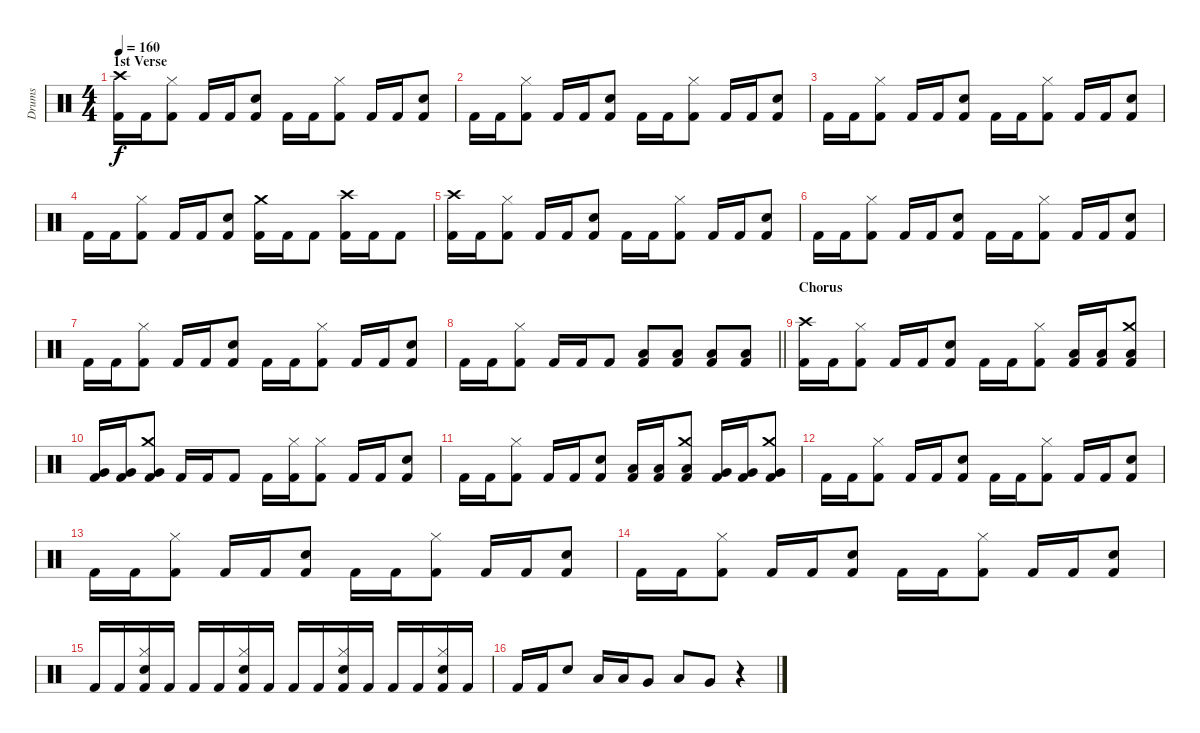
\track ("Drums" "Drums") {instrument percussion}
\staff {score}
\articulation defaults
\ts (4 4)
\section ("" "1st Verse")
\tempo 160
\clef neutral
\ks c
("Crash high (hit)" "Kick (hit) 2").16{dy f} "Kick (hit) 2".16 ("Hi-Hat (closed)" "Kick (hit) 2").8 "Kick (hit) 2".16 "Kick (hit) 2".16 ("Electric Snare (hit)" "Kick (hit) 2").8 "Kick (hit) 2".16 "Kick (hit) 2".16 ("Hi-Hat (closed)" "Kick (hit) 2").8 "Kick (hit) 2".16 "Kick (hit) 2".16 ("Electric Snare (hit)" "Kick (hit) 2").8 |
"Kick (hit) 2".16 "Kick (hit) 2".16 ("Hi-Hat (closed)" "Kick (hit) 2").8 "Kick (hit) 2".16 "Kick (hit) 2".16 ("Electric Snare (hit)" "Kick (hit) 2").8 "Kick (hit) 2".16 "Kick (hit) 2".16 ("Hi-Hat (closed)" "Kick (hit) 2").8 "Kick (hit) 2".16 "Kick (hit) 2".16 ("Electric Snare (hit)" "Kick (hit) 2").8 |
"Kick (hit) 2".16 "Kick (hit) 2".16 ("Hi-Hat (closed)" "Kick (hit) 2").8 "Kick (hit) 2".16 "Kick (hit) 2".16 ("Electric Snare (hit)" "Kick (hit) 2").8 "Kick (hit) 2".16 "Kick (hit) 2".16 ("Hi-Hat (closed)" "Kick (hit) 2").8 "Kick (hit) 2".16 "Kick (hit) 2".16 ("Electric Snare (hit)" "Kick (hit) 2").8 |
"Kick (hit) 2".16 "Kick (hit) 2".16 ("Hi-Hat (closed)" "Kick (hit) 2").8 "Kick (hit) 2".16 "Kick (hit) 2".16 ("Electric Snare (hit)" "Kick (hit) 2").8 ("Crash medium (hit)" "Kick (hit) 2").16 "Kick (hit) 2".16 "Kick (hit) 2".8 ("Crash high (hit)" "Kick (hit) 2").16 "Kick (hit) 2".16 "Kick (hit) 2".8 |
("Crash high (hit)" "Kick (hit) 2").16 "Kick (hit) 2".16 ("Hi-Hat (closed)" "Kick (hit) 2").8 "Kick (hit) 2".16 "Kick (hit) 2".16 ("Electric Snare (hit)" "Kick (hit) 2").8 "Kick (hit) 2".16 "Kick (hit) 2".16 ("Hi-Hat (closed)" "Kick (hit) 2").8 "Kick (hit) 2".16 "Kick (hit) 2".16 ("Electric Snare (hit)" "Kick (hit) 2").8 |
"Kick (hit) 2".16 "Kick (hit) 2".16 ("Hi-Hat (closed)" "Kick (hit) 2").8 "Kick (hit) 2".16 "Kick (hit) 2".16 ("Electric Snare (hit)" "Kick (hit) 2").8 "Kick (hit) 2".16 "Kick (hit) 2".16 ("Hi-Hat (closed)" "Kick (hit) 2").8 "Kick (hit) 2".16 "Kick (hit) 2".16 ("Electric Snare (hit)" "Kick (hit) 2").8 |
"Kick (hit) 2".16 "Kick (hit) 2".16 ("Hi-Hat (closed)" "Kick (hit) 2").8 "Kick (hit) 2".16 "Kick (hit) 2".16 ("Electric Snare (hit)" "Kick (hit) 2").8 "Kick (hit) 2".16 "Kick (hit) 2".16 ("Hi-Hat (closed)" "Kick (hit) 2").8 "Kick (hit) 2".16 "Kick (hit) 2".16 ("Electric Snare (hit)" "Kick (hit) 2").8 |
\barLineRight lightlight "Kick (hit) 2".16 "Kick (hit) 2".16
("Hi-Hat (closed)" "Kick (hit) 2").8 "Kick (hit) 2".16 "Kick (hit) 2".16 "Kick (hit) 2".8 ("Low Floor Tom (hit)" "Kick (hit) 2").8 ("Low Floor Tom (hit)" "Kick (hit) 2").8 ("Low Floor Tom (hit)" "Kick (hit) 2").8 ("Low Floor Tom (hit)" "Kick (hit) 2").8 |
\section ("" "Chorus")
("Crash high (hit)" "Kick (hit) 2").16 "Kick (hit) 2".16 ("Hi-Hat (closed)" "Kick (hit) 2").8 "Kick (hit) 2".16 "Kick (hit) 2".16 ("Electric Snare (hit)" "Kick (hit) 2").8 "Kick (hit) 2".16 "Kick (hit) 2".16 ("Hi-Hat (closed)" "Kick (hit) 2").8 ("Low Tom (hit)" "Kick (hit) 2").16 ("Low Tom (hit)" "Kick (hit) 2").16 ("Crash medium (hit)" "Low Tom (hit)" "Kick (hit) 2").8 |
("Very Low Tom (hit)" "Kick (hit) 2").16 ("Very Low Tom (hit)" "Kick (hit) 2").16 ("Crash medium (hit)" "Very Low Tom (hit)" "Kick (hit) 2").8 "Kick (hit) 2".16 "Kick (hit) 2".16 "Kick (hit) 2".8 "Kick (hit) 2".16 ("Hi-Hat (closed)" "Kick (hit) 2").16 ("Hi-Hat (closed)" "Kick (hit) 2").8 "Kick (hit) 2".16 "Kick (hit) 2".16 ("Electric Snare (hit)" "Kick (hit) 2").8 |
"Kick (hit) 2".16 "Kick (hit) 2".16 ("Hi-Hat (closed)" "Kick (hit) 2").8 "Kick (hit) 2".16 "Kick (hit) 2".16 ("Electric Snare (hit)" "Kick (hit) 2").8 ("Low Tom (hit)" "Kick (hit) 2").16 ("Low Tom (hit)" "Kick (hit) 2").16 ("Crash medium (hit)" "Low Tom (hit)" "Kick (hit) 2").8 ("Very Low Tom (hit)" "Kick (hit) 2").16 ("Very Low Tom (hit)" "Kick (hit) 2").16 ("Crash medium (hit)" "Very Low Tom (hit)" "Kick (hit) 2").8 |
"Kick (hit) 2".16 "Kick (hit) 2".16 ("Hi-Hat (closed)" "Kick (hit) 2").8 "Kick (hit) 2".16 "Kick (hit) 2".16 ("Electric Snare (hit)" "Kick (hit) 2").8 "Kick (hit) 2".16 "Kick (hit) 2".16 ("Hi-Hat (closed)" "Kick (hit) 2").8 "Kick (hit) 2".16 "Kick (hit) 2".16 ("Electric Snare (hit)" "Kick (hit) 2").8 |
"Kick (hit) 2".16 "Kick (hit) 2".16 ("Hi-Hat (closed)" "Kick (hit) 2").8 "Kick (hit) 2".16 "Kick (hit) 2".16 ("Electric Snare (hit)" "Kick (hit) 2").8 "Kick (hit) 2".16 "Kick (hit) 2".16 ("Hi-Hat (closed)" "Kick (hit) 2").8 "Kick (hit) 2".16 "Kick (hit) 2".16 ("Electric Snare (hit)" "Kick (hit) 2").8 |
"Kick (hit) 2".16 "Kick (hit) 2".16 ("Hi-Hat (closed)" "Kick (hit) 2").8 "Kick (hit) 2".16 "Kick (hit) 2".16 ("Electric Snare (hit)" "Kick (hit) 2").8 "Kick (hit) 2".16 "Kick (hit) 2".16 ("Hi-Hat (closed)" "Kick (hit) 2").8 "Kick (hit) 2".16 "Kick (hit) 2".16 ("Electric Snare (hit)" "Kick (hit) 2").8 |
"Kick (hit) 2".16 "Kick (hit) 2".16 ("Hi-Hat (closed)" "Electric Snare (hit)" "Kick (hit) 2").16 "Kick (hit) 2".16 "Kick (hit) 2".16 "Kick (hit) 2".16 ("Hi-Hat (closed)" "Electric Snare (hit)" "Kick (hit) 2").16 "Kick (hit) 2".16 "Kick (hit) 2".16 "Kick (hit) 2".16 ("Hi-Hat (closed)" "Electric Snare (hit)" "Kick (hit) 2").16 "Kick (hit) 2".16 "Kick (hit) 2".16 "Kick (hit) 2".16 ("Hi-Hat (closed)" "Electric Snare (hit)" "Kick (hit) 2").16 "Kick (hit) 2".16 |
"Kick (hit) 2".16 "Kick (hit) 2".16 "Electric Snare (hit)".8 "Low Tom (hit)".16 "Low Tom (hit)".16 "Very Low Tom (hit)".8 "Low Floor Tom (hit)".8 "Very Low Tom (hit)".8 r.4
